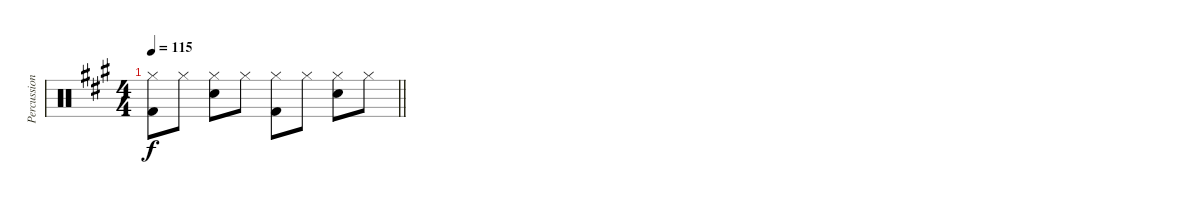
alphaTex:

\track ("Percussion" "Percussion") {instrument percussion}
\staff {score}
\articulation defaults
\ts (4 4)
\tempo 115
\clef neutral
\barLineRight lightlight
\ks a
("Hi-Hat (closed)" "Kick (hit) 2").8{dy f} "Hi-Hat (closed)".8 ("Hi-Hat (closed)" "Snare (hit) 2").8 "Hi-Hat (closed)".8 ("Hi-Hat (closed)" "Kick (hit) 2").8 "Hi-Hat (closed)".8 ("Hi-Hat (closed)" "Snare (hit) 2").8 "Hi-Hat (closed)".8
